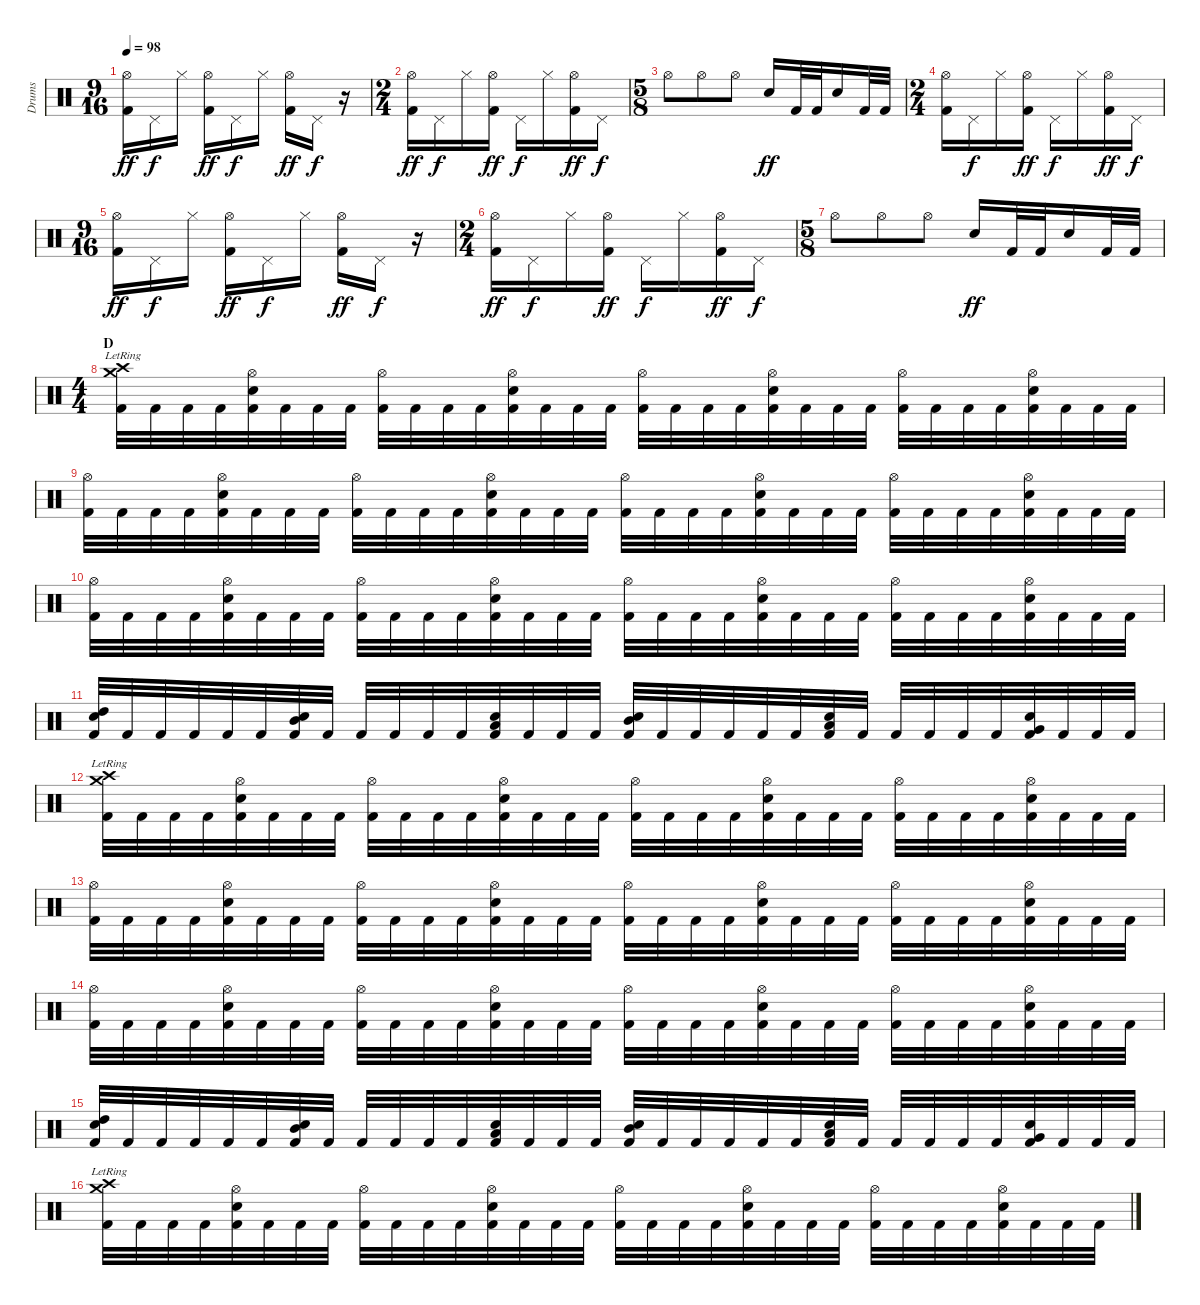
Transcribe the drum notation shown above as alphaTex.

\track ("Drums" "Drums") {instrument percussion}
\staff {score}
\articulation defaults
\ts (9 16)
\tempo 98
\clef neutral
\ks c
("Hi-Hat (open)" "Kick (hit) 2").16{dy ff} "Pedal Hi-Hat (hit)".16{dy f} "Hi-Hat (closed)".16 ("Hi-Hat (open)" "Kick (hit) 2").16{dy ff} "Pedal Hi-Hat (hit)".16{dy f} "Hi-Hat (closed)".16 ("Hi-Hat (open)" "Kick (hit) 2").16{dy ff} "Pedal Hi-Hat (hit)".16{dy f} r.16 |
\ts (2 4)
("Hi-Hat (open)" "Kick (hit) 2").16{dy ff} "Pedal Hi-Hat (hit)".16{dy f} "Hi-Hat (closed)".16 ("Hi-Hat (open)" "Kick (hit) 2").16{dy ff} "Pedal Hi-Hat (hit)".16{dy f} "Hi-Hat (closed)".16 ("Hi-Hat (open)" "Kick (hit) 2").16{dy ff} "Pedal Hi-Hat (hit)".16{dy f} |
\ts (5 8)
"Hi-Hat (open)".8 "Hi-Hat (open)".8 "Hi-Hat (open)".8 "Snare (hit) 2".16{dy ff} "Kick (hit) 2".32 "Kick (hit) 2".32 "Snare (hit) 2".16 "Kick (hit) 2".32 "Kick (hit) 2".32 |
\ts (2 4)
("Hi-Hat (open)" "Kick (hit) 2").16 "Pedal Hi-Hat (hit)".16{dy f} "Hi-Hat (closed)".16 ("Hi-Hat (open)" "Kick (hit) 2").16{dy ff} "Pedal Hi-Hat (hit)".16{dy f} "Hi-Hat (closed)".16 ("Hi-Hat (open)" "Kick (hit) 2").16{dy ff} "Pedal Hi-Hat (hit)".16{dy f} |
\ts (9 16)
("Hi-Hat (open)" "Kick (hit) 2").16{dy ff} "Pedal Hi-Hat (hit)".16{dy f} "Hi-Hat (closed)".16 ("Hi-Hat (open)" "Kick (hit) 2").16{dy ff} "Pedal Hi-Hat (hit)".16{dy f} "Hi-Hat (closed)".16 ("Hi-Hat (open)" "Kick (hit) 2").16{dy ff} "Pedal Hi-Hat (hit)".16{dy f} r.16 |
\ts (2 4)
("Hi-Hat (open)" "Kick (hit) 2").16{dy ff} "Pedal Hi-Hat (hit)".16{dy f} "Hi-Hat (closed)".16 ("Hi-Hat (open)" "Kick (hit) 2").16{dy ff} "Pedal Hi-Hat (hit)".16{dy f} "Hi-Hat (closed)".16 ("Hi-Hat (open)" "Kick (hit) 2").16{dy ff} "Pedal Hi-Hat (hit)".16{dy f} |
\ts (5 8)
"Hi-Hat (open)".8 "Hi-Hat (open)".8 "Hi-Hat (open)".8 "Snare (hit) 2".16{dy ff} "Kick (hit) 2".32 "Kick (hit) 2".32 "Snare (hit) 2".16 "Kick (hit) 2".32 "Kick (hit) 2".32 |
\ts (4 4)
\section ("" "D")
("Crash medium (hit)"{lr} "Crash high (hit)" "Kick (hit) 2").32 "Kick (hit) 2".32 "Kick (hit) 2".32 "Kick (hit) 2".32 ("Hi-Hat (open)" "Snare (hit) 2" "Kick (hit) 2").32 "Kick (hit) 2".32 "Kick (hit) 2".32 "Kick (hit) 2".32 ("Hi-Hat (open)" "Kick (hit) 2").32 "Kick (hit) 2".32 "Kick (hit) 2".32 "Kick (hit) 2".32 ("Hi-Hat (open)" "Snare (hit) 2" "Kick (hit) 2").32 "Kick (hit) 2".32 "Kick (hit) 2".32 "Kick (hit) 2".32 ("Hi-Hat (open)" "Kick (hit) 2").32 "Kick (hit) 2".32 "Kick (hit) 2".32 "Kick (hit) 2".32 ("Hi-Hat (open)" "Snare (hit) 2" "Kick (hit) 2").32 "Kick (hit) 2".32 "Kick (hit) 2".32 "Kick (hit) 2".32 ("Hi-Hat (open)" "Kick (hit) 2").32 "Kick (hit) 2".32 "Kick (hit) 2".32 "Kick (hit) 2".32 ("Hi-Hat (open)" "Snare (hit) 2" "Kick (hit) 2").32 "Kick (hit) 2".32 "Kick (hit) 2".32 "Kick (hit) 2".32 |
("Hi-Hat (open)" "Kick (hit) 2").32 "Kick (hit) 2".32 "Kick (hit) 2".32 "Kick (hit) 2".32 ("Hi-Hat (open)" "Snare (hit) 2" "Kick (hit) 2").32 "Kick (hit) 2".32 "Kick (hit) 2".32 "Kick (hit) 2".32 ("Hi-Hat (open)" "Kick (hit) 2").32 "Kick (hit) 2".32 "Kick (hit) 2".32 "Kick (hit) 2".32 ("Hi-Hat (open)" "Snare (hit) 2" "Kick (hit) 2").32 "Kick (hit) 2".32 "Kick (hit) 2".32 "Kick (hit) 2".32 ("Hi-Hat (open)" "Kick (hit) 2").32 "Kick (hit) 2".32 "Kick (hit) 2".32 "Kick (hit) 2".32 ("Hi-Hat (open)" "Snare (hit) 2" "Kick (hit) 2").32 "Kick (hit) 2".32 "Kick (hit) 2".32 "Kick (hit) 2".32 ("Hi-Hat (open)" "Kick (hit) 2").32 "Kick (hit) 2".32 "Kick (hit) 2".32 "Kick (hit) 2".32 ("Hi-Hat (open)" "Snare (hit) 2" "Kick (hit) 2").32 "Kick (hit) 2".32 "Kick (hit) 2".32 "Kick (hit) 2".32 |
("Hi-Hat (open)" "Kick (hit) 2").32 "Kick (hit) 2".32 "Kick (hit) 2".32 "Kick (hit) 2".32 ("Hi-Hat (open)" "Snare (hit) 2" "Kick (hit) 2").32 "Kick (hit) 2".32 "Kick (hit) 2".32 "Kick (hit) 2".32 ("Hi-Hat (open)" "Kick (hit) 2").32 "Kick (hit) 2".32 "Kick (hit) 2".32 "Kick (hit) 2".32 ("Hi-Hat (open)" "Snare (hit) 2" "Kick (hit) 2").32 "Kick (hit) 2".32 "Kick (hit) 2".32 "Kick (hit) 2".32 ("Hi-Hat (open)" "Kick (hit) 2").32 "Kick (hit) 2".32 "Kick (hit) 2".32 "Kick (hit) 2".32 ("Hi-Hat (open)" "Snare (hit) 2" "Kick (hit) 2").32 "Kick (hit) 2".32 "Kick (hit) 2".32 "Kick (hit) 2".32 ("Hi-Hat (open)" "Kick (hit) 2").32 "Kick (hit) 2".32 "Kick (hit) 2".32 "Kick (hit) 2".32 ("Hi-Hat (open)" "Snare (hit) 2" "Kick (hit) 2").32 "Kick (hit) 2".32 "Kick (hit) 2".32 "Kick (hit) 2".32 |
("Electric Snare (hit)" "High Tom (hit)" "Kick (hit) 2").32 "Kick (hit) 2".32 "Kick (hit) 2".32 "Kick (hit) 2".32 "Kick (hit) 2".32 "Kick (hit) 2".32 ("Electric Snare (hit)" "Mid Tom (hit)" "Kick (hit) 2").32 "Kick (hit) 2".32 "Kick (hit) 2".32 "Kick (hit) 2".32 "Kick (hit) 2".32 "Kick (hit) 2".32 ("Electric Snare (hit)" "Low Tom (hit)" "Kick (hit) 2").32 "Kick (hit) 2".32 "Kick (hit) 2".32 "Kick (hit) 2".32 ("Electric Snare (hit)" "Mid Tom (hit)" "Kick (hit) 2").32 "Kick (hit) 2".32 "Kick (hit) 2".32 "Kick (hit) 2".32 "Kick (hit) 2".32 "Kick (hit) 2".32 ("Electric Snare (hit)" "Low Tom (hit)" "Kick (hit) 2").32 "Kick (hit) 2".32 "Kick (hit) 2".32 "Kick (hit) 2".32 "Kick (hit) 2".32 "Kick (hit) 2".32 ("Electric Snare (hit)" "Very Low Tom (hit)" "Kick (hit) 2").32 "Kick (hit) 2".32 "Kick (hit) 2".32 "Kick (hit) 2".32 |
("Crash medium (hit)"{lr} "Crash high (hit)" "Kick (hit) 2").32 "Kick (hit) 2".32 "Kick (hit) 2".32 "Kick (hit) 2".32 ("Hi-Hat (open)" "Snare (hit) 2" "Kick (hit) 2").32 "Kick (hit) 2".32 "Kick (hit) 2".32 "Kick (hit) 2".32 ("Hi-Hat (open)" "Kick (hit) 2").32 "Kick (hit) 2".32 "Kick (hit) 2".32 "Kick (hit) 2".32 ("Hi-Hat (open)" "Snare (hit) 2" "Kick (hit) 2").32 "Kick (hit) 2".32 "Kick (hit) 2".32 "Kick (hit) 2".32 ("Hi-Hat (open)" "Kick (hit) 2").32 "Kick (hit) 2".32 "Kick (hit) 2".32 "Kick (hit) 2".32 ("Hi-Hat (open)" "Snare (hit) 2" "Kick (hit) 2").32 "Kick (hit) 2".32 "Kick (hit) 2".32 "Kick (hit) 2".32 ("Hi-Hat (open)" "Kick (hit) 2").32 "Kick (hit) 2".32 "Kick (hit) 2".32 "Kick (hit) 2".32 ("Hi-Hat (open)" "Snare (hit) 2" "Kick (hit) 2").32 "Kick (hit) 2".32 "Kick (hit) 2".32 "Kick (hit) 2".32 |
("Hi-Hat (open)" "Kick (hit) 2").32 "Kick (hit) 2".32 "Kick (hit) 2".32 "Kick (hit) 2".32 ("Hi-Hat (open)" "Snare (hit) 2" "Kick (hit) 2").32 "Kick (hit) 2".32 "Kick (hit) 2".32 "Kick (hit) 2".32 ("Hi-Hat (open)" "Kick (hit) 2").32 "Kick (hit) 2".32 "Kick (hit) 2".32 "Kick (hit) 2".32 ("Hi-Hat (open)" "Snare (hit) 2" "Kick (hit) 2").32 "Kick (hit) 2".32 "Kick (hit) 2".32 "Kick (hit) 2".32 ("Hi-Hat (open)" "Kick (hit) 2").32 "Kick (hit) 2".32 "Kick (hit) 2".32 "Kick (hit) 2".32 ("Hi-Hat (open)" "Snare (hit) 2" "Kick (hit) 2").32 "Kick (hit) 2".32 "Kick (hit) 2".32 "Kick (hit) 2".32 ("Hi-Hat (open)" "Kick (hit) 2").32 "Kick (hit) 2".32 "Kick (hit) 2".32 "Kick (hit) 2".32 ("Hi-Hat (open)" "Snare (hit) 2" "Kick (hit) 2").32 "Kick (hit) 2".32 "Kick (hit) 2".32 "Kick (hit) 2".32 |
("Hi-Hat (open)" "Kick (hit) 2").32 "Kick (hit) 2".32 "Kick (hit) 2".32 "Kick (hit) 2".32 ("Hi-Hat (open)" "Snare (hit) 2" "Kick (hit) 2").32 "Kick (hit) 2".32 "Kick (hit) 2".32 "Kick (hit) 2".32 ("Hi-Hat (open)" "Kick (hit) 2").32 "Kick (hit) 2".32 "Kick (hit) 2".32 "Kick (hit) 2".32 ("Hi-Hat (open)" "Snare (hit) 2" "Kick (hit) 2").32 "Kick (hit) 2".32 "Kick (hit) 2".32 "Kick (hit) 2".32 ("Hi-Hat (open)" "Kick (hit) 2").32 "Kick (hit) 2".32 "Kick (hit) 2".32 "Kick (hit) 2".32 ("Hi-Hat (open)" "Snare (hit) 2" "Kick (hit) 2").32 "Kick (hit) 2".32 "Kick (hit) 2".32 "Kick (hit) 2".32 ("Hi-Hat (open)" "Kick (hit) 2").32 "Kick (hit) 2".32 "Kick (hit) 2".32 "Kick (hit) 2".32 ("Hi-Hat (open)" "Snare (hit) 2" "Kick (hit) 2").32 "Kick (hit) 2".32 "Kick (hit) 2".32 "Kick (hit) 2".32 |
("Electric Snare (hit)" "High Tom (hit)" "Kick (hit) 2").32 "Kick (hit) 2".32 "Kick (hit) 2".32 "Kick (hit) 2".32 "Kick (hit) 2".32 "Kick (hit) 2".32 ("Electric Snare (hit)" "Mid Tom (hit)" "Kick (hit) 2").32 "Kick (hit) 2".32 "Kick (hit) 2".32 "Kick (hit) 2".32 "Kick (hit) 2".32 "Kick (hit) 2".32 ("Electric Snare (hit)" "Low Tom (hit)" "Kick (hit) 2").32 "Kick (hit) 2".32 "Kick (hit) 2".32 "Kick (hit) 2".32 ("Electric Snare (hit)" "Mid Tom (hit)" "Kick (hit) 2").32 "Kick (hit) 2".32 "Kick (hit) 2".32 "Kick (hit) 2".32 "Kick (hit) 2".32 "Kick (hit) 2".32 ("Electric Snare (hit)" "Low Tom (hit)" "Kick (hit) 2").32 "Kick (hit) 2".32 "Kick (hit) 2".32 "Kick (hit) 2".32 "Kick (hit) 2".32 "Kick (hit) 2".32 ("Electric Snare (hit)" "Very Low Tom (hit)" "Kick (hit) 2").32 "Kick (hit) 2".32 "Kick (hit) 2".32 "Kick (hit) 2".32 |
("Crash medium (hit)"{lr} "Crash high (hit)" "Kick (hit) 2").32 "Kick (hit) 2".32 "Kick (hit) 2".32 "Kick (hit) 2".32 ("Hi-Hat (open)" "Snare (hit) 2" "Kick (hit) 2").32 "Kick (hit) 2".32 "Kick (hit) 2".32 "Kick (hit) 2".32 ("Hi-Hat (open)" "Kick (hit) 2").32 "Kick (hit) 2".32 "Kick (hit) 2".32 "Kick (hit) 2".32 ("Hi-Hat (open)" "Snare (hit) 2" "Kick (hit) 2").32 "Kick (hit) 2".32 "Kick (hit) 2".32 "Kick (hit) 2".32 ("Hi-Hat (open)" "Kick (hit) 2").32 "Kick (hit) 2".32 "Kick (hit) 2".32 "Kick (hit) 2".32 ("Hi-Hat (open)" "Snare (hit) 2" "Kick (hit) 2").32 "Kick (hit) 2".32 "Kick (hit) 2".32 "Kick (hit) 2".32 ("Hi-Hat (open)" "Kick (hit) 2").32 "Kick (hit) 2".32 "Kick (hit) 2".32 "Kick (hit) 2".32 ("Hi-Hat (open)" "Snare (hit) 2" "Kick (hit) 2").32 "Kick (hit) 2".32 "Kick (hit) 2".32 "Kick (hit) 2".32
